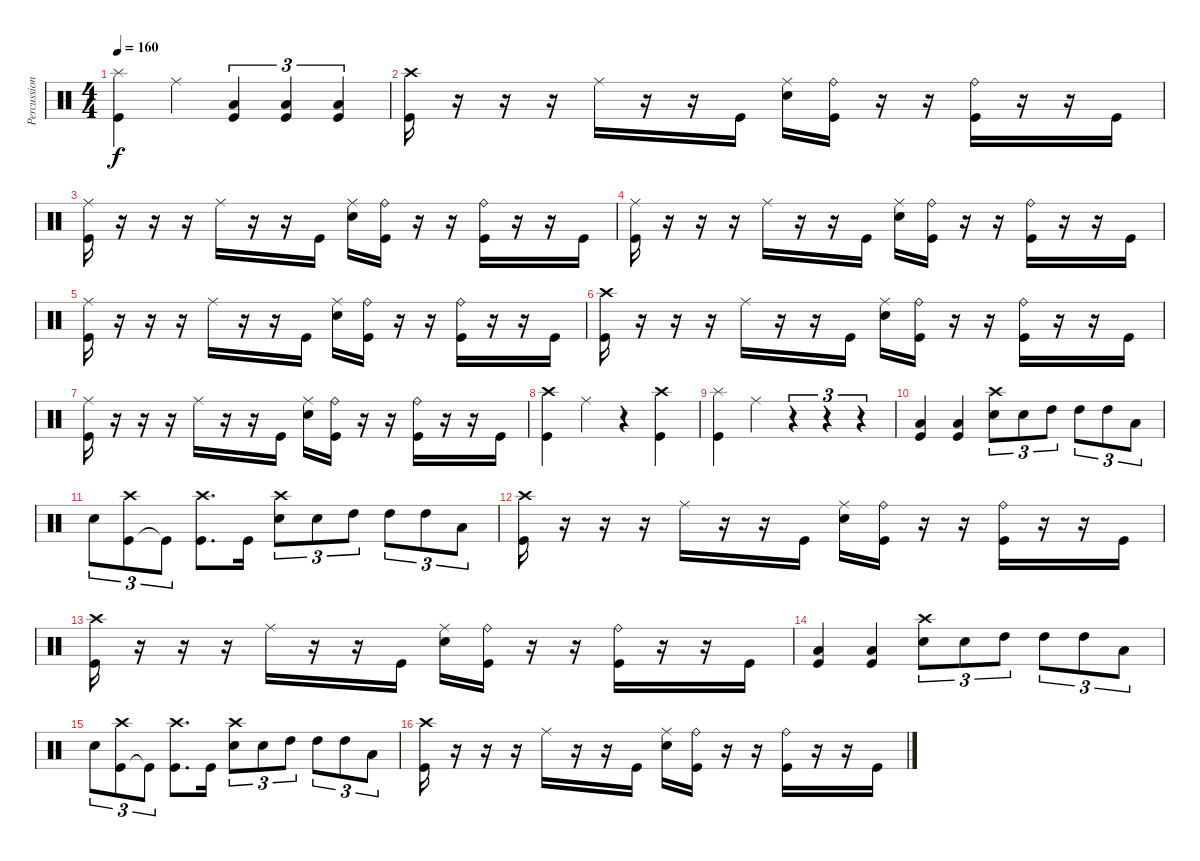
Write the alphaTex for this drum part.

\track ("Percussion" "Percussion") {instrument percussion}
\staff {score}
\articulation defaults
\ts (4 4)
\tempo 160
\clef neutral
\ks c
("Kick (hit)" "Splash (hit)").4{dy f} "Ride (middle)".4 ("Kick (hit)" "Low Floor Tom (hit)").4{tu (3 2)} ("Kick (hit)" "Low Floor Tom (hit)").4{tu (3 2)} ("Kick (hit)" "Low Floor Tom (hit)").4{tu (3 2)} |
("Kick (hit)" "Crash high (hit)").16 r.16 r.16 r.16 "Ride (middle)".16 r.16 r.16 "Kick (hit)".16 ("Snare (hit) 2" "Ride (middle)").16 ("Kick (hit)" "Ride (bell)").16 r.16 r.16 ("Ride (bell)" "Kick (hit)").16 r.16 r.16 "Kick (hit)".16 |
("Kick (hit)" "Ride (middle)").16 r.16 r.16 r.16 "Ride (middle)".16 r.16 r.16 "Kick (hit)".16 ("Snare (hit) 2" "Ride (middle)").16 ("Kick (hit)" "Ride (bell)").16 r.16 r.16 ("Ride (bell)" "Kick (hit)").16 r.16 r.16 "Kick (hit)".16 |
("Kick (hit)" "Ride (middle)").16 r.16 r.16 r.16 "Ride (middle)".16 r.16 r.16 "Kick (hit)".16 ("Snare (hit) 2" "Ride (middle)").16 ("Kick (hit)" "Ride (bell)").16 r.16 r.16 ("Ride (bell)" "Kick (hit)").16 r.16 r.16 "Kick (hit)".16 |
("Kick (hit)" "Ride (middle)").16 r.16 r.16 r.16 "Ride (middle)".16 r.16 r.16 "Kick (hit)".16 ("Snare (hit) 2" "Ride (middle)").16 ("Kick (hit)" "Ride (bell)").16 r.16 r.16 ("Ride (bell)" "Kick (hit)").16 r.16 r.16 "Kick (hit)".16 |
("Kick (hit)" "Crash high (hit)").16 r.16 r.16 r.16 "Ride (middle)".16 r.16 r.16 "Kick (hit)".16 ("Snare (hit) 2" "Ride (middle)").16 ("Kick (hit)" "Ride (bell)").16 r.16 r.16 ("Ride (bell)" "Kick (hit)").16 r.16 r.16 "Kick (hit)".16 |
("Kick (hit)" "Ride (middle)").16 r.16 r.16 r.16 "Ride (middle)".16 r.16 r.16 "Kick (hit)".16 ("Snare (hit) 2" "Ride (middle)").16 ("Kick (hit)" "Ride (bell)").16 r.16 r.16 ("Ride (bell)" "Kick (hit)").16 r.16 r.16 "Kick (hit)".16 |
("Kick (hit)" "Crash high (hit)").4{volume 13} "Ride (middle)".4 r.4 ("Kick (hit)" "Crash high (hit)").4 |
("Kick (hit)" "Splash (hit)").4 "Ride (middle)".4 r.4{tu (3 2)} r.4{tu (3 2)} r.4{tu (3 2)} |
("Kick (hit)" "Low Floor Tom (hit)").4 ("Kick (hit)" "Low Floor Tom (hit)").4 ("Snare (hit) 2" "Crash high (hit)").8{tu (3 2)} "Snare (hit) 2".8{tu (3 2)} "High Tom (hit)".8{tu (3 2)} "High Tom (hit)".8{tu (3 2)} "High Tom (hit)".8{tu (3 2)} "Low Floor Tom (hit)".8{tu (3 2)} |
"Snare (hit) 2".8{tu (3 2)} ("Kick (hit)" "Crash high (hit)").8{tu (3 2)} "Kick (hit)"{t}.8{tu (3 2)} ("Kick (hit)" "Crash high (hit)").8{d} "Kick (hit)".16 ("Snare (hit) 2" "Crash high (hit)").8{tu (3 2)} "Snare (hit) 2".8{tu (3 2)} "High Tom (hit)".8{tu (3 2)} "High Tom (hit)".8{tu (3 2)} "High Tom (hit)".8{tu (3 2)} "Low Floor Tom (hit)".8{tu (3 2)} |
("Kick (hit)" "Crash high (hit)").16 r.16 r.16 r.16 "Ride (middle)".16 r.16 r.16 "Kick (hit)".16 ("Snare (hit) 2" "Ride (middle)").16 ("Kick (hit)" "Ride (bell)").16 r.16 r.16 ("Ride (bell)" "Kick (hit)").16 r.16 r.16 "Kick (hit)".16 |
("Kick (hit)" "Crash high (hit)").16 r.16 r.16 r.16 "Ride (middle)".16 r.16 r.16 "Kick (hit)".16 ("Snare (hit) 2" "Ride (middle)").16 ("Kick (hit)" "Ride (bell)").16 r.16 r.16 ("Ride (bell)" "Kick (hit)").16 r.16 r.16 "Kick (hit)".16 |
("Kick (hit)" "Low Floor Tom (hit)").4 ("Kick (hit)" "Low Floor Tom (hit)").4 ("Snare (hit) 2" "Crash high (hit)").8{tu (3 2)} "Snare (hit) 2".8{tu (3 2)} "High Tom (hit)".8{tu (3 2)} "High Tom (hit)".8{tu (3 2)} "High Tom (hit)".8{tu (3 2)} "Low Floor Tom (hit)".8{tu (3 2)} |
"Snare (hit) 2".8{tu (3 2)} ("Kick (hit)" "Crash high (hit)").8{tu (3 2)} "Kick (hit)"{t}.8{tu (3 2)} ("Kick (hit)" "Crash high (hit)").8{d} "Kick (hit)".16 ("Snare (hit) 2" "Crash high (hit)").8{tu (3 2)} "Snare (hit) 2".8{tu (3 2)} "High Tom (hit)".8{tu (3 2)} "High Tom (hit)".8{tu (3 2)} "High Tom (hit)".8{tu (3 2)} "Low Floor Tom (hit)".8{tu (3 2)} |
("Kick (hit)" "Crash high (hit)").16 r.16 r.16 r.16 "Ride (middle)".16 r.16 r.16 "Kick (hit)".16 ("Snare (hit) 2" "Ride (middle)").16 ("Kick (hit)" "Ride (bell)").16 r.16 r.16 ("Ride (bell)" "Kick (hit)").16 r.16 r.16 "Kick (hit)".16
